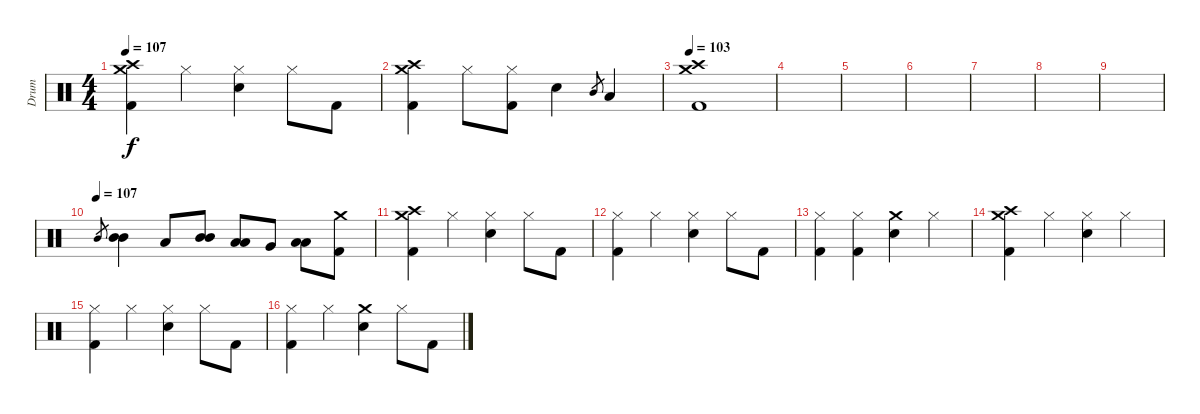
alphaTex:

\track ("Drum" "Drum") {instrument percussion}
\staff {score}
\articulation defaults
\ts (4 4)
\tempo 107
\clef neutral
\ks c
("Kick (hit) 2" "Crash medium (hit)" "Crash high (hit)").4{dy f} "Hi-Hat (closed)".4 ("Hi-Hat (closed)" "Snare (hit) 2").4 "Hi-Hat (closed)".8 "Kick (hit) 2".8 |
("Kick (hit) 2" "Crash high (hit)" "Crash medium (hit)").4 "Hi-Hat (closed)".8 ("Hi-Hat (closed)" "Kick (hit) 2").8 "Snare (hit) 2".4 "Mid Tom (hit)".8{gr} "Low Tom (hit)".4 |
\section ("" "")
\tempo 103
("Kick (hit) 2" "Crash high (hit)" "Crash medium (hit)").1 |
|
|
|
|
|
|
\tempo (107)
"Mid Tom (hit)".8{gr} ("Mid Tom (hit)" "Mid Tom (hit)").4 "Low Tom (hit)".8 ("Mid Tom (hit)" "Mid Tom (hit)").8 ("Low Tom (hit)" "Low Tom (hit)").8 "Very Low Tom (hit)".8 ("Low Floor Tom (hit)" "Low Floor Tom (hit)").8 ("Kick (hit) 2" "Crash medium (hit)").8 |
\section ("" "")
("Kick (hit) 2" "Crash medium (hit)" "Crash high (hit)").4 "Hi-Hat (closed)".4 ("Hi-Hat (closed)" "Snare (hit) 2").4 "Hi-Hat (closed)".8 "Kick (hit) 2".8 |
("Hi-Hat (closed)" "Kick (hit) 2").4 "Hi-Hat (closed)".4 ("Hi-Hat (closed)" "Snare (hit) 2").4 "Hi-Hat (closed)".8 "Kick (hit) 2".8 |
("Hi-Hat (closed)" "Kick (hit) 2").4 ("Hi-Hat (closed)" "Kick (hit) 2").4 ("Snare (hit) 2" "Crash medium (hit)").4 "Hi-Hat (closed)".4 |
("Kick (hit) 2" "Crash medium (hit)" "Crash high (hit)").4 "Hi-Hat (closed)".4 ("Hi-Hat (closed)" "Snare (hit) 2").4 "Hi-Hat (closed)".4 |
("Hi-Hat (closed)" "Kick (hit) 2").4 "Hi-Hat (closed)".4 ("Hi-Hat (closed)" "Snare (hit) 2").4 "Hi-Hat (closed)".8 "Kick (hit) 2".8 |
("Hi-Hat (closed)" "Kick (hit) 2").4 "Hi-Hat (closed)".4 ("Snare (hit) 2" "Crash medium (hit)").4 "Hi-Hat (closed)".8 "Kick (hit) 2".8
